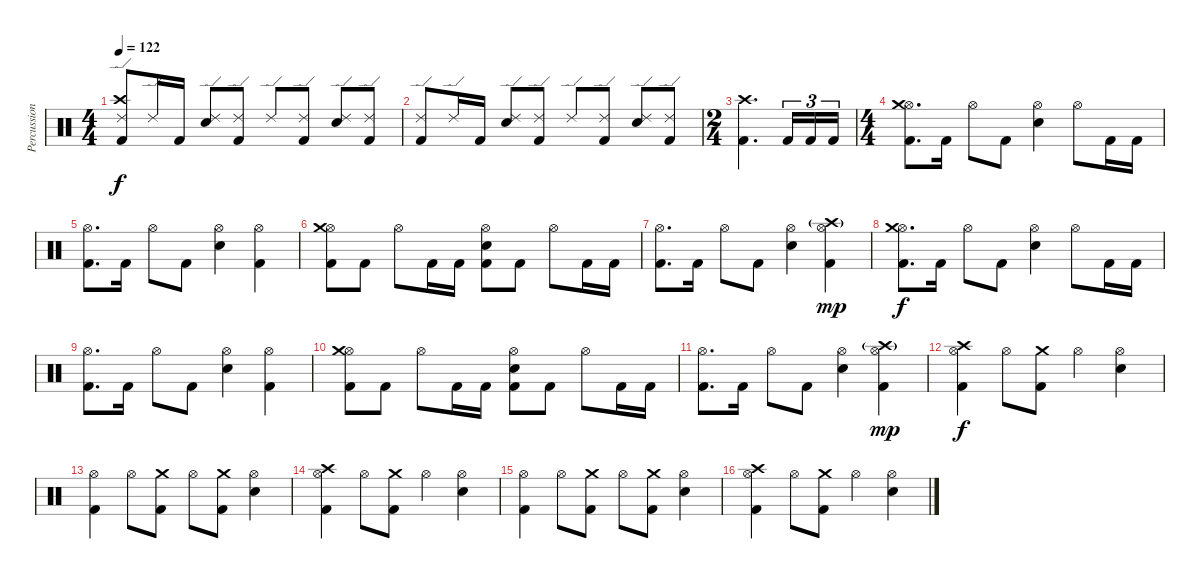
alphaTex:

\track ("Percussion" "Percussion") {instrument percussion}
\staff {score}
\articulation defaults
\ts (4 4)
\tempo 122
\clef neutral
\ks c
("Ride (edge) 2" "Crash high (hit)" "Kick (hit) 2").8{dy f} "Ride (edge) 2".16 "Kick (hit) 2".16 ("Ride (edge) 2" "Electric Snare (hit)").8 ("Ride (edge) 2" "Kick (hit) 2").8 "Ride (edge) 2".8 ("Ride (edge) 2" "Kick (hit) 2").8 ("Ride (edge) 2" "Electric Snare (hit)").8 ("Ride (edge) 2" "Kick (hit) 2").8 |
("Ride (edge) 2" "Kick (hit) 2").8 "Ride (edge) 2".16 "Kick (hit) 2".16 ("Ride (edge) 2" "Electric Snare (hit)").8 ("Ride (edge) 2" "Kick (hit) 2").8 "Ride (edge) 2".8 ("Ride (edge) 2" "Kick (hit) 2").8 ("Ride (edge) 2" "Electric Snare (hit)").8 ("Ride (edge) 2" "Kick (hit) 2").8 |
\ts (2 4)
("Crash high (hit)" "Kick (hit) 2").4{d} "Kick (hit) 2".16{tu (3 2)} "Kick (hit) 2".16{tu (3 2)} "Kick (hit) 2".16{tu (3 2)} |
\ts (4 4)
("Hi-Hat (open)" "Crash medium (hit)" "Kick (hit) 2").8{d} "Kick (hit) 2".16 "Hi-Hat (open)".8 "Kick (hit) 2".8 ("Hi-Hat (open)" "Electric Snare (hit)").4 "Hi-Hat (open)".8 "Kick (hit) 2".16 "Kick (hit) 2".16 |
("Hi-Hat (open)" "Kick (hit) 2").8{d} "Kick (hit) 2".16 "Hi-Hat (open)".8 "Kick (hit) 2".8 ("Hi-Hat (open)" "Electric Snare (hit)").4 ("Hi-Hat (open)" "Kick (hit) 2").4 |
("Hi-Hat (open)" "Crash medium (hit)" "Kick (hit) 2").8 "Kick (hit) 2".8 "Hi-Hat (open)".8 "Kick (hit) 2".16 "Kick (hit) 2".16 ("Hi-Hat (open)" "Electric Snare (hit)" "Kick (hit) 2").8 "Kick (hit) 2".8 "Hi-Hat (open)".8 "Kick (hit) 2".16 "Kick (hit) 2".16 |
("Hi-Hat (open)" "Kick (hit) 2").8{d} "Kick (hit) 2".16 "Hi-Hat (open)".8 "Kick (hit) 2".8 ("Hi-Hat (open)" "Electric Snare (hit)").4 ("Hi-Hat (open)" "Crash high (hit)"{g} "Kick (hit) 2").4{dy mp} |
("Hi-Hat (open)" "Crash medium (hit)" "Kick (hit) 2").8{d dy f} "Kick (hit) 2".16 "Hi-Hat (open)".8 "Kick (hit) 2".8 ("Hi-Hat (open)" "Electric Snare (hit)").4 "Hi-Hat (open)".8 "Kick (hit) 2".16 "Kick (hit) 2".16 |
("Hi-Hat (open)" "Kick (hit) 2").8{d} "Kick (hit) 2".16 "Hi-Hat (open)".8 "Kick (hit) 2".8 ("Hi-Hat (open)" "Electric Snare (hit)").4 ("Hi-Hat (open)" "Kick (hit) 2").4 |
("Hi-Hat (open)" "Crash medium (hit)" "Kick (hit) 2").8 "Kick (hit) 2".8 "Hi-Hat (open)".8 "Kick (hit) 2".16 "Kick (hit) 2".16 ("Hi-Hat (open)" "Electric Snare (hit)" "Kick (hit) 2").8 "Kick (hit) 2".8 "Hi-Hat (open)".8 "Kick (hit) 2".16 "Kick (hit) 2".16 |
("Hi-Hat (open)" "Kick (hit) 2").8{d} "Kick (hit) 2".16 "Hi-Hat (open)".8 "Kick (hit) 2".8 ("Hi-Hat (open)" "Electric Snare (hit)").4 ("Hi-Hat (open)" "Crash high (hit)"{g} "Kick (hit) 2").4{dy mp} |
("Hi-Hat (open)" "Crash high (hit)" "Kick (hit) 2").4{dy f} "Hi-Hat (open)".8 ("Crash medium (hit)" "Kick (hit) 2").8 "Hi-Hat (open)".4 ("Hi-Hat (open)" "Electric Snare (hit)").4 |
("Hi-Hat (open)" "Kick (hit) 2").4 "Hi-Hat (open)".8 ("Crash medium (hit)" "Kick (hit) 2").8 "Hi-Hat (open)".8 ("Crash medium (hit)" "Kick (hit) 2").8 ("Hi-Hat (open)" "Electric Snare (hit)").4 |
("Hi-Hat (open)" "Crash high (hit)" "Kick (hit) 2").4 "Hi-Hat (open)".8 ("Crash medium (hit)" "Kick (hit) 2").8 "Hi-Hat (open)".4 ("Hi-Hat (open)" "Electric Snare (hit)").4 |
("Hi-Hat (open)" "Kick (hit) 2").4 "Hi-Hat (open)".8 ("Crash medium (hit)" "Kick (hit) 2").8 "Hi-Hat (open)".8 ("Crash medium (hit)" "Kick (hit) 2").8 ("Hi-Hat (open)" "Electric Snare (hit)").4 |
("Hi-Hat (open)" "Crash high (hit)" "Kick (hit) 2").4 "Hi-Hat (open)".8 ("Crash medium (hit)" "Kick (hit) 2").8 "Hi-Hat (open)".4 ("Hi-Hat (open)" "Electric Snare (hit)").4
